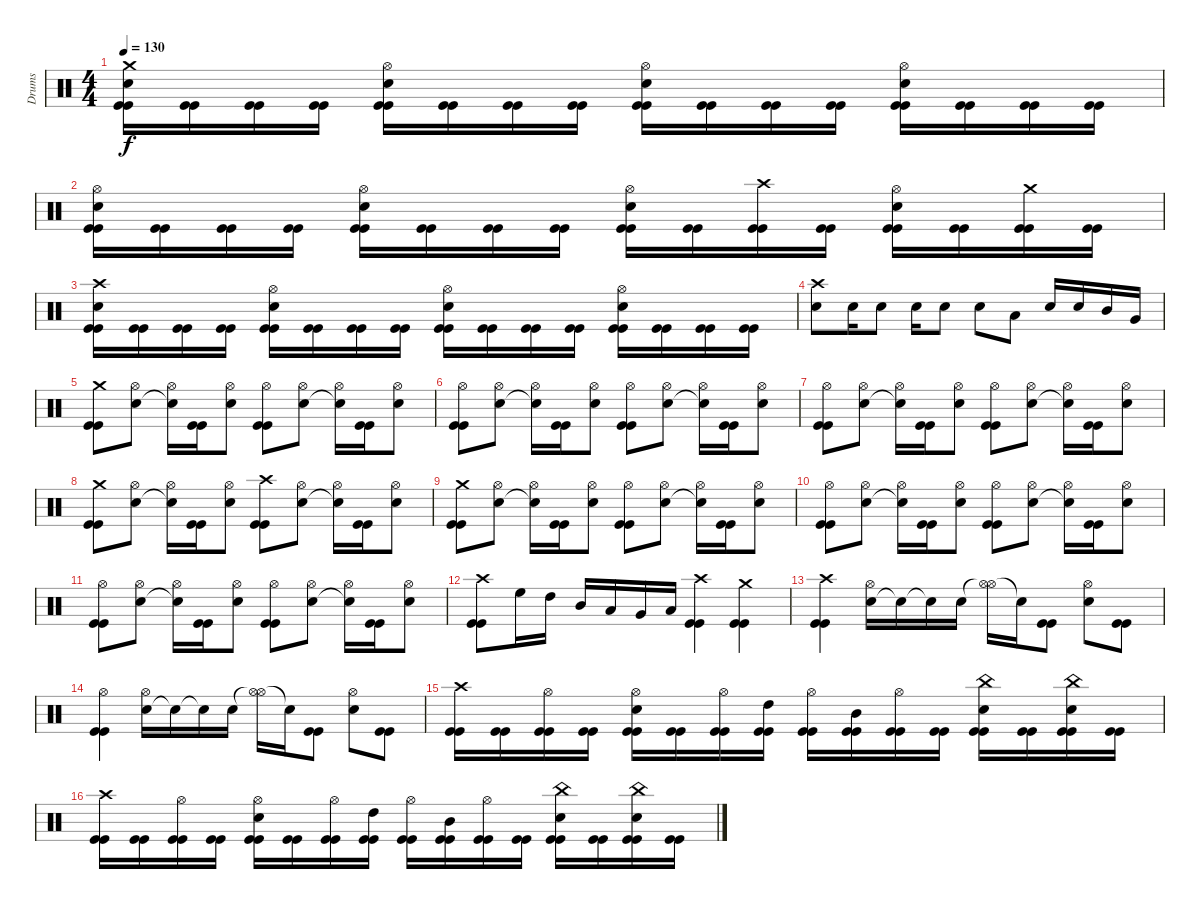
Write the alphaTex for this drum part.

\track ("Drums" "Drums") {instrument percussion}
\staff {score}
\articulation defaults
\ts (4 4)
\tempo 130
\clef neutral
\ks c
("Kick (hit)" "Kick (hit)" "Snare (hit) 2" "Crash medium (hit)").16{dy f} ("Kick (hit)" "Kick (hit)").16 ("Kick (hit)" "Kick (hit)").16 ("Kick (hit)" "Kick (hit)").16 ("Kick (hit)" "Kick (hit)" "Snare (hit) 2" "Hi-Hat (open)").16 ("Kick (hit)" "Kick (hit)").16 ("Kick (hit)" "Kick (hit)").16 ("Kick (hit)" "Kick (hit)").16 ("Kick (hit)" "Kick (hit)" "Snare (hit) 2" "Hi-Hat (open)").16 ("Kick (hit)" "Kick (hit)").16 ("Kick (hit)" "Kick (hit)").16 ("Kick (hit)" "Kick (hit)").16 ("Kick (hit)" "Kick (hit)" "Snare (hit) 2" "Hi-Hat (open)").16 ("Kick (hit)" "Kick (hit)").16 ("Kick (hit)" "Kick (hit)").16 ("Kick (hit)" "Kick (hit)").16 |
("Kick (hit)" "Kick (hit)" "Snare (hit) 2" "Hi-Hat (open)").16 ("Kick (hit)" "Kick (hit)").16 ("Kick (hit)" "Kick (hit)").16 ("Kick (hit)" "Kick (hit)").16 ("Kick (hit)" "Kick (hit)" "Snare (hit) 2" "Hi-Hat (open)").16 ("Kick (hit)" "Kick (hit)").16 ("Kick (hit)" "Kick (hit)").16 ("Kick (hit)" "Kick (hit)").16 ("Kick (hit)" "Kick (hit)" "Snare (hit) 2" "Hi-Hat (open)").16 ("Kick (hit)" "Kick (hit)").16 ("Kick (hit)" "Kick (hit)" "Crash high (hit)").16 ("Kick (hit)" "Kick (hit)").16 ("Kick (hit)" "Kick (hit)" "Snare (hit) 2" "Hi-Hat (open)").16 ("Kick (hit)" "Kick (hit)").16 ("Kick (hit)" "Kick (hit)" "Crash medium (hit)").16 ("Kick (hit)" "Kick (hit)").16 |
("Kick (hit)" "Kick (hit)" "Snare (hit) 2" "Crash high (hit)").16 ("Kick (hit)" "Kick (hit)").16 ("Kick (hit)" "Kick (hit)").16 ("Kick (hit)" "Kick (hit)").16 ("Kick (hit)" "Kick (hit)" "Snare (hit) 2" "Hi-Hat (open)").16 ("Kick (hit)" "Kick (hit)").16 ("Kick (hit)" "Kick (hit)").16 ("Kick (hit)" "Kick (hit)").16 ("Kick (hit)" "Kick (hit)" "Snare (hit) 2" "Hi-Hat (open)").16 ("Kick (hit)" "Kick (hit)").16 ("Kick (hit)" "Kick (hit)").16 ("Kick (hit)" "Kick (hit)").16 ("Kick (hit)" "Kick (hit)" "Snare (hit) 2" "Hi-Hat (open)").16 ("Kick (hit)" "Kick (hit)").16 ("Kick (hit)" "Kick (hit)").16 ("Kick (hit)" "Kick (hit)").16 |
("Snare (hit) 2" "Crash high (hit)").8 "Snare (hit) 2".16 "Snare (hit) 2".8 "Snare (hit) 2".16 "Snare (hit) 2".8 "Snare (hit) 2".8 "Low Floor Tom (hit)".8 "Snare (hit) 2".16 "Snare (hit) 2".16 "Mid Tom (hit)".16 "Very Low Tom (hit)".16 |
("Kick (hit)" "Kick (hit)" "Crash medium (hit)").8 ("Snare (hit) 2" "Hi-Hat (open)").8 ("Snare (hit)"{t} "Hi-Hat (open)").16 ("Kick (hit)" "Kick (hit)").16 ("Snare (hit) 2" "Hi-Hat (open)").8 ("Kick (hit)" "Kick (hit)" "Hi-Hat (open)").8 ("Snare (hit) 2" "Hi-Hat (open)").8 ("Snare (hit)"{t} "Hi-Hat (open)").16 ("Kick (hit)" "Kick (hit)").16 ("Snare (hit) 2" "Hi-Hat (open)").8 |
("Kick (hit)" "Kick (hit)" "Hi-Hat (open)").8 ("Snare (hit) 2" "Hi-Hat (open)").8 ("Snare (hit)"{t} "Hi-Hat (open)").16 ("Kick (hit)" "Kick (hit)").16 ("Snare (hit) 2" "Hi-Hat (open)").8 ("Kick (hit)" "Kick (hit)" "Hi-Hat (open)").8 ("Snare (hit) 2" "Hi-Hat (open)").8 ("Snare (hit)"{t} "Hi-Hat (open)").16 ("Kick (hit)" "Kick (hit)").16 ("Snare (hit) 2" "Hi-Hat (open)").8 |
("Kick (hit)" "Kick (hit)" "Hi-Hat (open)").8 ("Snare (hit) 2" "Hi-Hat (open)").8 ("Snare (hit)"{t} "Hi-Hat (open)").16 ("Kick (hit)" "Kick (hit)").16 ("Snare (hit) 2" "Hi-Hat (open)").8 ("Kick (hit)" "Kick (hit)" "Hi-Hat (open)").8 ("Snare (hit) 2" "Hi-Hat (open)").8 ("Snare (hit)"{t} "Hi-Hat (open)").16 ("Kick (hit)" "Kick (hit)").16 ("Snare (hit) 2" "Hi-Hat (open)").8 |
("Kick (hit)" "Kick (hit)" "Crash medium (hit)").8 ("Snare (hit) 2" "Hi-Hat (open)").8 ("Snare (hit)"{t} "Hi-Hat (open)").16 ("Kick (hit)" "Kick (hit)").16 ("Snare (hit) 2" "Hi-Hat (open)").8 ("Kick (hit)" "Kick (hit)" "Crash high (hit)").8 ("Snare (hit) 2" "Hi-Hat (open)").8 ("Snare (hit)"{t} "Hi-Hat (open)").16 ("Kick (hit)" "Kick (hit)").16 ("Snare (hit) 2" "Hi-Hat (open)").8 |
("Kick (hit)" "Kick (hit)" "Crash medium (hit)").8 ("Snare (hit) 2" "Hi-Hat (open)").8 ("Snare (hit)"{t} "Hi-Hat (open)").16 ("Kick (hit)" "Kick (hit)").16 ("Snare (hit) 2" "Hi-Hat (open)").8 ("Kick (hit)" "Kick (hit)" "Hi-Hat (open)").8 ("Snare (hit) 2" "Hi-Hat (open)").8 ("Snare (hit)"{t} "Hi-Hat (open)").16 ("Kick (hit)" "Kick (hit)").16 ("Snare (hit) 2" "Hi-Hat (open)").8 |
("Kick (hit)" "Kick (hit)" "Hi-Hat (open)").8 ("Snare (hit) 2" "Hi-Hat (open)").8 ("Snare (hit)"{t} "Hi-Hat (open)").16 ("Kick (hit)" "Kick (hit)").16 ("Snare (hit) 2" "Hi-Hat (open)").8 ("Kick (hit)" "Kick (hit)" "Hi-Hat (open)").8 ("Snare (hit) 2" "Hi-Hat (open)").8 ("Snare (hit)"{t} "Hi-Hat (open)").16 ("Kick (hit)" "Kick (hit)").16 ("Snare (hit) 2" "Hi-Hat (open)").8 |
("Kick (hit)" "Kick (hit)" "Hi-Hat (open)").8 ("Snare (hit) 2" "Hi-Hat (open)").8 ("Snare (hit)"{t} "Hi-Hat (open)").16 ("Kick (hit)" "Kick (hit)").16 ("Snare (hit) 2" "Hi-Hat (open)").8 ("Kick (hit)" "Kick (hit)" "Hi-Hat (open)").8 ("Snare (hit) 2" "Hi-Hat (open)").8 ("Snare (hit)"{t} "Hi-Hat (open)").16 ("Kick (hit)" "Kick (hit)").16 ("Snare (hit) 2" "Hi-Hat (open)").8 |
("Kick (hit)" "Kick (hit)" "Crash high (hit)").8 "High Floor Tom (hit)".16 "High Tom (hit)".16 "Mid Tom (hit)".16 "Low Tom (hit)".16 "Very Low Tom (hit)".16 "Low Floor Tom (hit)".16 ("Kick (hit)" "Kick (hit)" "Crash high (hit)").4 ("Kick (hit)" "Kick (hit)" "Crash medium (hit)").4 |
("Kick (hit)" "Kick (hit)" "Crash high (hit)").4 ("Snare (hit) 2" "Hi-Hat (open)").16 "Snare (hit)"{t}.16 "Snare (hit)"{t}.16 "Snare (hit) 2".16 ("Hi-Hat (open)"{t} "Hi-Hat (open)").16 "Snare (hit)"{t}.16 ("Kick (hit)" "Kick (hit)").8 ("Snare (hit) 2" "Hi-Hat (open)").8 ("Kick (hit)" "Kick (hit)").8 |
("Kick (hit)" "Kick (hit)" "Hi-Hat (open)").4 ("Snare (hit) 2" "Hi-Hat (open)").16 "Snare (hit)"{t}.16 "Snare (hit)"{t}.16 "Snare (hit) 2".16 ("Hi-Hat (open)"{t} "Hi-Hat (open)").16 "Snare (hit)"{t}.16 ("Kick (hit)" "Kick (hit)").8 ("Snare (hit) 2" "Hi-Hat (open)").8 ("Kick (hit)" "Kick (hit)").8 |
("Kick (hit)" "Kick (hit)" "Crash high (hit)").16 ("Kick (hit)" "Kick (hit)").16 ("Kick (hit)" "Kick (hit)" "Hi-Hat (open)").16 ("Kick (hit)" "Kick (hit)").16 ("Kick (hit)" "Kick (hit)" "Snare (hit) 2" "Hi-Hat (open)").16 ("Kick (hit)" "Kick (hit)").16 ("Kick (hit)" "Kick (hit)" "Hi-Hat (open)").16 ("Kick (hit)" "Kick (hit)" "High Tom (hit)").16 ("Kick (hit)" "Kick (hit)" "Hi-Hat (open)").16 ("Kick (hit)" "Kick (hit)" "Mid Tom (hit)").16 ("Kick (hit)" "Kick (hit)" "Hi-Hat (open)").16 ("Kick (hit)" "Kick (hit)").16 ("Kick (hit)" "Kick (hit)" "Snare (hit) 2" "China (hit)").16 ("Kick (hit)" "Kick (hit)").16 ("Kick (hit)" "Kick (hit)" "Snare (hit) 2" "China (hit)").16 ("Kick (hit)" "Kick (hit)").16 |
("Kick (hit)" "Kick (hit)" "Crash high (hit)").16 ("Kick (hit)" "Kick (hit)").16 ("Kick (hit)" "Kick (hit)" "Hi-Hat (open)").16 ("Kick (hit)" "Kick (hit)").16 ("Kick (hit)" "Kick (hit)" "Snare (hit) 2" "Hi-Hat (open)").16 ("Kick (hit)" "Kick (hit)").16 ("Kick (hit)" "Kick (hit)" "Hi-Hat (open)").16 ("Kick (hit)" "Kick (hit)" "High Tom (hit)").16 ("Kick (hit)" "Kick (hit)" "Hi-Hat (open)").16 ("Kick (hit)" "Kick (hit)" "Mid Tom (hit)").16 ("Kick (hit)" "Kick (hit)" "Hi-Hat (open)").16 ("Kick (hit)" "Kick (hit)").16 ("Kick (hit)" "Kick (hit)" "Snare (hit) 2" "China (hit)").16 ("Kick (hit)" "Kick (hit)").16 ("Kick (hit)" "Kick (hit)" "Snare (hit) 2" "China (hit)").16 ("Kick (hit)" "Kick (hit)").16
